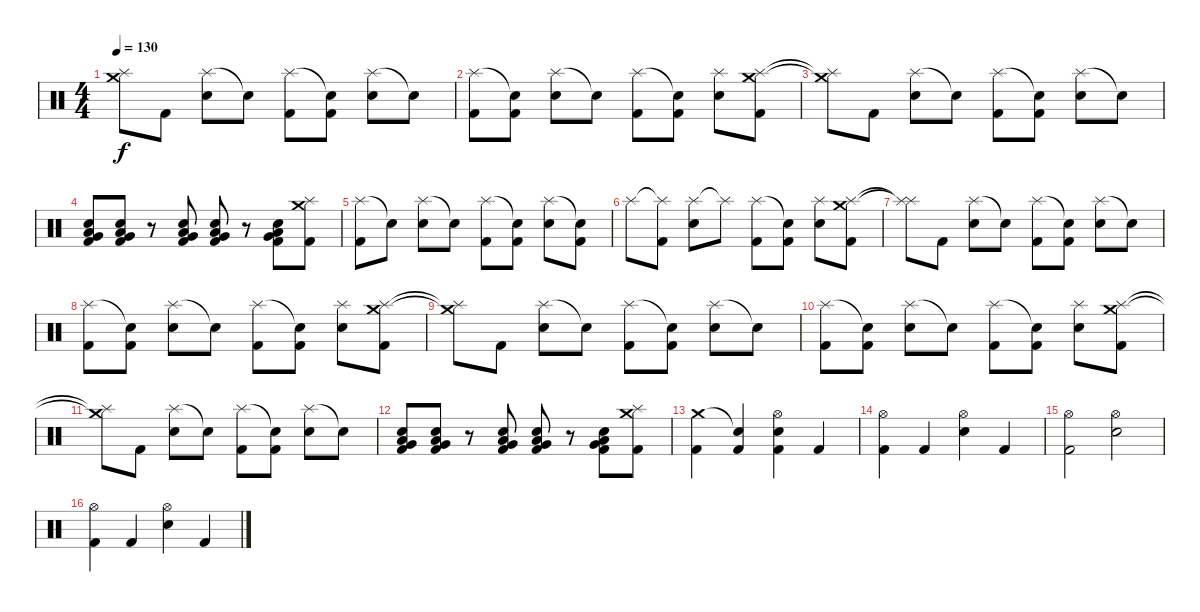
\track (" " " ") {solo instrument percussion}
\staff {score}
\articulation defaults
\ts (4 4)
\tempo 130
\clef neutral
\ks c
("Crash medium (hit)"{t} "Splash (hit)"{t}).8{dy f} "Kick (hit) 2".8 ("Splash (hit)" "Electric Snare (hit)").8 "Snare (hit)"{t}.8 ("Splash (hit)" "Kick (hit) 2").8 ("Snare (hit)"{t} "Kick (hit) 2").8 ("Splash (hit)" "Electric Snare (hit)").8 "Snare (hit)"{t}.8 |
("Splash (hit)" "Kick (hit) 2").8 ("Snare (hit)"{t} "Kick (hit) 2").8 ("Splash (hit)" "Electric Snare (hit)").8 "Snare (hit)"{t}.8 ("Splash (hit)" "Kick (hit) 2").8 ("Snare (hit)"{t} "Kick (hit) 2").8 ("Splash (hit)" "Electric Snare (hit)").8 ("Crash medium (hit)" "Splash (hit)" "Kick (hit) 2").8 |
("Crash medium (hit)"{t} "Splash (hit)"{t}).8 "Kick (hit) 2".8 ("Splash (hit)" "Electric Snare (hit)").8 "Snare (hit)"{t}.8 ("Splash (hit)" "Kick (hit) 2").8 ("Snare (hit)"{t} "Kick (hit) 2").8 ("Splash (hit)" "Electric Snare (hit)").8 "Snare (hit)"{t}.8 |
("Electric Snare (hit)" "Low Floor Tom (hit)" "Very Low Tom (hit)" "Kick (hit) 2").8 ("Electric Snare (hit)" "Low Floor Tom (hit)" "Very Low Tom (hit)" "Kick (hit) 2").8 r.8 ("Electric Snare (hit)" "Low Floor Tom (hit)" "Very Low Tom (hit)" "Kick (hit) 2").8 ("Electric Snare (hit)" "Low Floor Tom (hit)" "Very Low Tom (hit)" "Kick (hit) 2").8 r.8 ("Electric Snare (hit)" "Low Floor Tom (hit)" "Very Low Tom (hit)" "Kick (hit) 2").8 ("Splash (hit)" "Crash medium (hit)" "Kick (hit) 2").8 |
("Splash (hit)" "Kick (hit) 2").8 "Snare (hit)"{t}.8 ("Splash (hit)" "Electric Snare (hit)").8 "Snare (hit)"{t}.8 ("Splash (hit)" "Kick (hit) 2").8 ("Snare (hit)"{t} "Kick (hit) 2").8 ("Splash (hit)" "Electric Snare (hit)").8 ("Snare (hit)"{t} "Kick (hit) 2").8 |
"Splash (hit)".8 ("Splash (hit)"{t} "Kick (hit) 2").8 ("Splash (hit)" "Electric Snare (hit)").8 "Splash (hit)"{t}.8 ("Splash (hit)" "Kick (hit) 2").8 ("Snare (hit)"{t} "Kick (hit) 2").8 ("Splash (hit)" "Electric Snare (hit)").8 ("Crash medium (hit)" "Splash (hit)" "Kick (hit) 2").8 |
("Splash (hit)"{t} "Splash (hit)"{t}).8 "Kick (hit) 2".8 ("Splash (hit)" "Electric Snare (hit)").8 "Snare (hit)"{t}.8 ("Splash (hit)" "Kick (hit) 2").8 ("Snare (hit)"{t} "Kick (hit) 2").8 ("Splash (hit)" "Electric Snare (hit)").8 "Snare (hit)"{t}.8 |
("Splash (hit)" "Kick (hit) 2").8 ("Snare (hit)"{t} "Kick (hit) 2").8 ("Splash (hit)" "Electric Snare (hit)").8 "Snare (hit)"{t}.8 ("Splash (hit)" "Kick (hit) 2").8 ("Snare (hit)"{t} "Kick (hit) 2").8 ("Splash (hit)" "Electric Snare (hit)").8 ("Crash medium (hit)" "Splash (hit)" "Kick (hit) 2").8 |
("Crash medium (hit)"{t} "Splash (hit)"{t}).8 "Kick (hit) 2".8 ("Splash (hit)" "Electric Snare (hit)").8 "Snare (hit)"{t}.8 ("Splash (hit)" "Kick (hit) 2").8 ("Snare (hit)"{t} "Kick (hit) 2").8 ("Splash (hit)" "Electric Snare (hit)").8 "Snare (hit)"{t}.8 |
("Splash (hit)" "Kick (hit) 2").8 ("Snare (hit)"{t} "Kick (hit) 2").8 ("Splash (hit)" "Electric Snare (hit)").8 "Snare (hit)"{t}.8 ("Splash (hit)" "Kick (hit) 2").8 ("Snare (hit)"{t} "Kick (hit) 2").8 ("Splash (hit)" "Electric Snare (hit)").8 ("Crash medium (hit)" "Splash (hit)" "Kick (hit) 2").8 |
("Crash medium (hit)"{t} "Splash (hit)"{t}).8 "Kick (hit) 2".8 ("Splash (hit)" "Electric Snare (hit)").8 "Snare (hit)"{t}.8 ("Splash (hit)" "Kick (hit) 2").8 ("Snare (hit)"{t} "Kick (hit) 2").8 ("Splash (hit)" "Electric Snare (hit)").8 "Snare (hit)"{t}.8 |
("Electric Snare (hit)" "Low Floor Tom (hit)" "Very Low Tom (hit)" "Kick (hit) 2").8 ("Electric Snare (hit)" "Low Floor Tom (hit)" "Very Low Tom (hit)" "Kick (hit) 2").8 r.8 ("Electric Snare (hit)" "Low Floor Tom (hit)" "Very Low Tom (hit)" "Kick (hit) 2").8 ("Electric Snare (hit)" "Low Floor Tom (hit)" "Very Low Tom (hit)" "Kick (hit) 2").8 r.8 ("Electric Snare (hit)" "Low Floor Tom (hit)" "Very Low Tom (hit)" "Kick (hit) 2").8 ("Splash (hit)" "Crash medium (hit)" "Kick (hit) 2").8 |
("Crash medium (hit)" "Kick (hit) 2").4 ("Snare (hit)"{t} "Kick (hit) 2").4 ("Hi-Hat (open)" "Electric Snare (hit)" "Kick (hit) 2").4 "Kick (hit) 2".4 |
("Hi-Hat (open)" "Kick (hit) 2").4 "Kick (hit) 2".4 ("Hi-Hat (open)" "Electric Snare (hit)").4 "Kick (hit) 2".4 |
("Hi-Hat (open)" "Kick (hit) 2").2 ("Hi-Hat (open)" "Electric Snare (hit)").2 |
("Hi-Hat (open)" "Kick (hit) 2").4 "Kick (hit) 2".4 ("Hi-Hat (open)" "Electric Snare (hit)").4 "Kick (hit) 2".4
